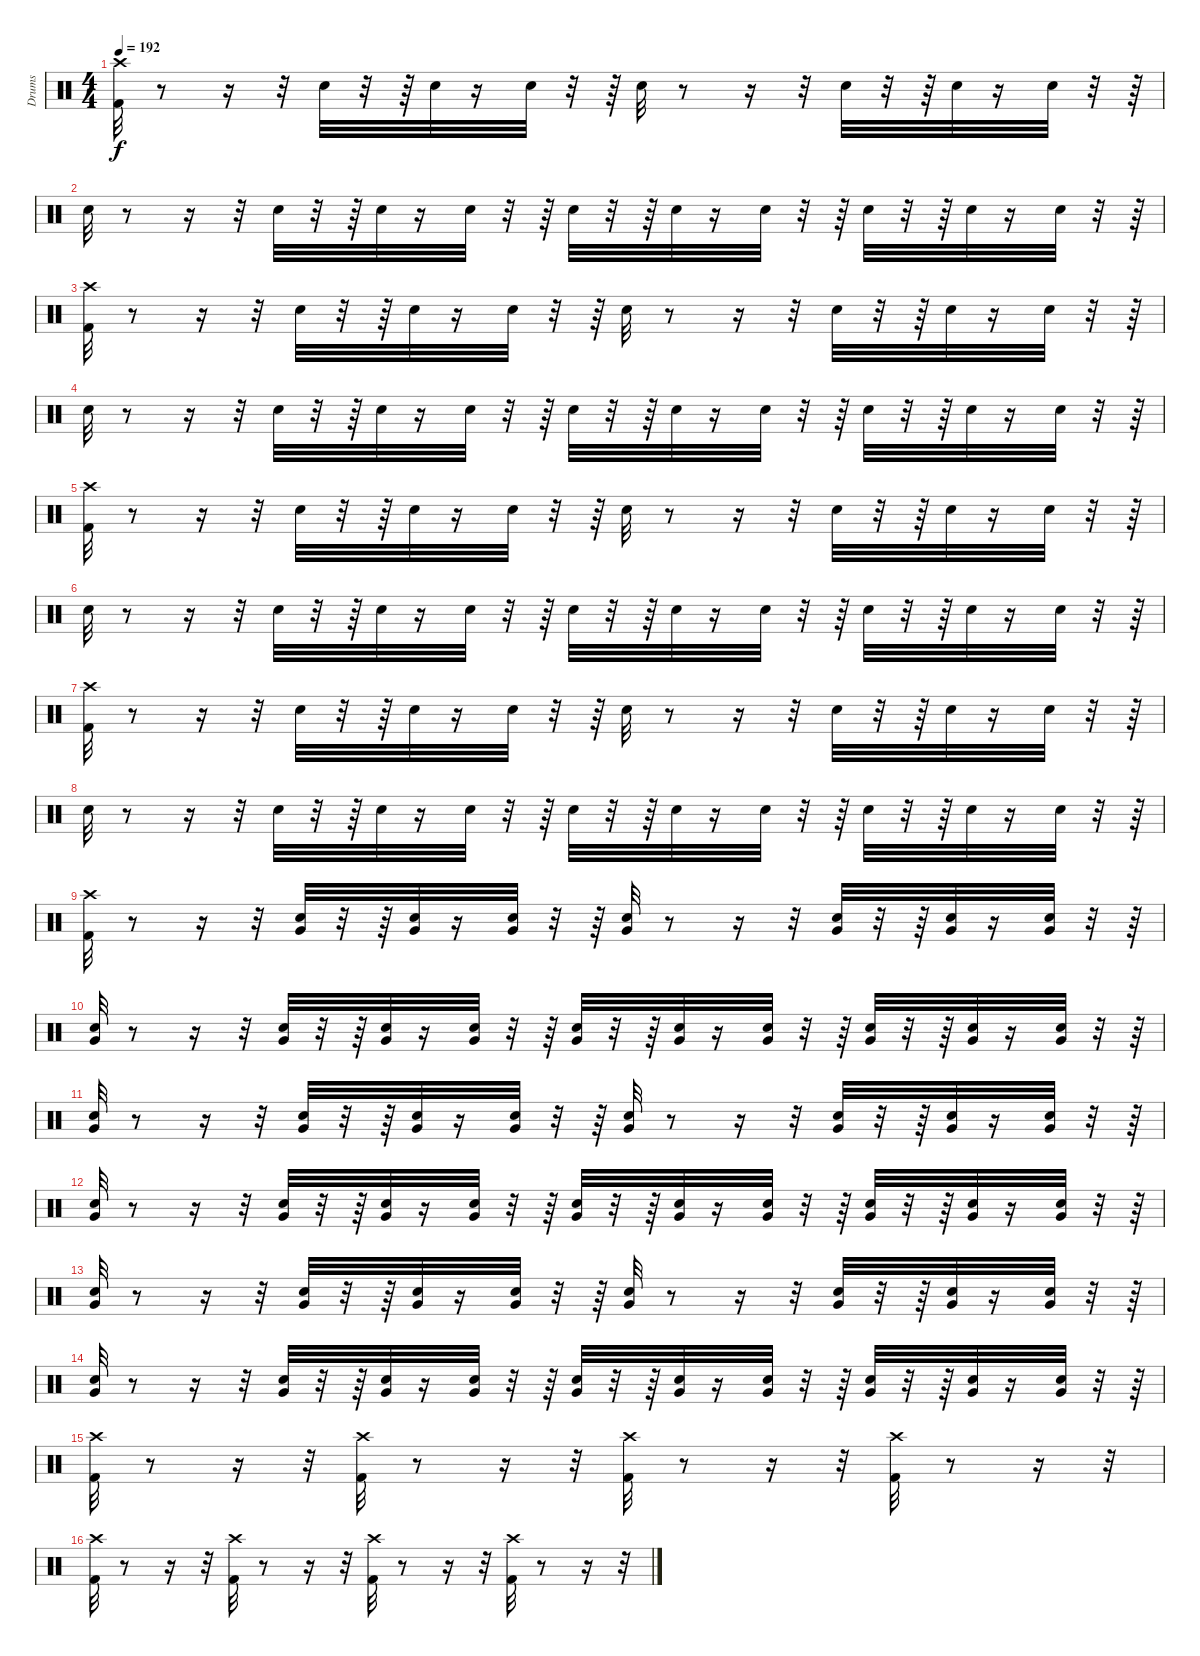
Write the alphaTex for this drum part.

\track ("Drums" "Drums") {instrument percussion}
\staff {score}
\articulation defaults
\ts (4 4)
\tempo 192
\clef neutral
\ks c
("Kick (hit) 2" "Crash high (hit)").32{dy f} r.8 r.16 r.32 "Snare (hit) 2".32 r.32 r.64 "Snare (hit) 2".32 r.16 "Snare (hit) 2".32 r.32 r.64 "Snare (hit) 2".32 r.8 r.16 r.32 "Snare (hit) 2".32 r.32 r.64 "Snare (hit) 2".32 r.16 "Snare (hit) 2".32 r.32 r.64 |
"Snare (hit) 2".32 r.8 r.16 r.32 "Snare (hit) 2".32 r.32 r.64 "Snare (hit) 2".32 r.16 "Snare (hit) 2".32 r.32 r.64 "Snare (hit) 2".32 r.32 r.64 "Snare (hit) 2".32 r.16 "Snare (hit) 2".32 r.32 r.64 "Snare (hit) 2".32 r.32 r.64 "Snare (hit) 2".32 r.16 "Snare (hit) 2".32 r.32 r.64 |
("Kick (hit) 2" "Crash high (hit)").32 r.8 r.16 r.32 "Snare (hit) 2".32 r.32 r.64 "Snare (hit) 2".32 r.16 "Snare (hit) 2".32 r.32 r.64 "Snare (hit) 2".32 r.8 r.16 r.32 "Snare (hit) 2".32 r.32 r.64 "Snare (hit) 2".32 r.16 "Snare (hit) 2".32 r.32 r.64 |
"Snare (hit) 2".32 r.8 r.16 r.32 "Snare (hit) 2".32 r.32 r.64 "Snare (hit) 2".32 r.16 "Snare (hit) 2".32 r.32 r.64 "Snare (hit) 2".32 r.32 r.64 "Snare (hit) 2".32 r.16 "Snare (hit) 2".32 r.32 r.64 "Snare (hit) 2".32 r.32 r.64 "Snare (hit) 2".32 r.16 "Snare (hit) 2".32 r.32 r.64 |
("Kick (hit) 2" "Crash high (hit)").32 r.8 r.16 r.32 "Snare (hit) 2".32 r.32 r.64 "Snare (hit) 2".32 r.16 "Snare (hit) 2".32 r.32 r.64 "Snare (hit) 2".32 r.8 r.16 r.32 "Snare (hit) 2".32 r.32 r.64 "Snare (hit) 2".32 r.16 "Snare (hit) 2".32 r.32 r.64 |
"Snare (hit) 2".32 r.8 r.16 r.32 "Snare (hit) 2".32 r.32 r.64 "Snare (hit) 2".32 r.16 "Snare (hit) 2".32 r.32 r.64 "Snare (hit) 2".32 r.32 r.64 "Snare (hit) 2".32 r.16 "Snare (hit) 2".32 r.32 r.64 "Snare (hit) 2".32 r.32 r.64 "Snare (hit) 2".32 r.16 "Snare (hit) 2".32 r.32 r.64 |
("Kick (hit) 2" "Crash high (hit)").32 r.8 r.16 r.32 "Snare (hit) 2".32 r.32 r.64 "Snare (hit) 2".32 r.16 "Snare (hit) 2".32 r.32 r.64 "Snare (hit) 2".32 r.8 r.16 r.32 "Snare (hit) 2".32 r.32 r.64 "Snare (hit) 2".32 r.16 "Snare (hit) 2".32 r.32 r.64 |
"Snare (hit) 2".32 r.8 r.16 r.32 "Snare (hit) 2".32 r.32 r.64 "Snare (hit) 2".32 r.16 "Snare (hit) 2".32 r.32 r.64 "Snare (hit) 2".32 r.32 r.64 "Snare (hit) 2".32 r.16 "Snare (hit) 2".32 r.32 r.64 "Snare (hit) 2".32 r.32 r.64 "Snare (hit) 2".32 r.16 "Snare (hit) 2".32 r.32 r.64 |
("Kick (hit) 2" "Crash high (hit)").32 r.8 r.16 r.32 ("Snare (hit) 2" "Very Low Tom (hit)").32 r.32 r.64 ("Snare (hit) 2" "Very Low Tom (hit)").32 r.16 ("Snare (hit) 2" "Very Low Tom (hit)").32 r.32 r.64 ("Snare (hit) 2" "Very Low Tom (hit)").32 r.8 r.16 r.32 ("Snare (hit) 2" "Very Low Tom (hit)").32 r.32 r.64 ("Snare (hit) 2" "Very Low Tom (hit)").32 r.16 ("Snare (hit) 2" "Very Low Tom (hit)").32 r.32 r.64 |
("Very Low Tom (hit)" "Snare (hit) 2").32 r.8 r.16 r.32 ("Very Low Tom (hit)" "Snare (hit) 2").32 r.32 r.64 ("Very Low Tom (hit)" "Snare (hit) 2").32 r.16 ("Very Low Tom (hit)" "Snare (hit) 2").32 r.32 r.64 ("Very Low Tom (hit)" "Snare (hit) 2").32 r.32 r.64 ("Very Low Tom (hit)" "Snare (hit) 2").32 r.16 ("Very Low Tom (hit)" "Snare (hit) 2").32 r.32 r.64 ("Very Low Tom (hit)" "Snare (hit) 2").32 r.32 r.64 ("Very Low Tom (hit)" "Snare (hit) 2").32 r.16 ("Very Low Tom (hit)" "Snare (hit) 2").32 r.32 r.64 |
("Snare (hit) 2" "Very Low Tom (hit)").32 r.8 r.16 r.32 ("Snare (hit) 2" "Very Low Tom (hit)").32 r.32 r.64 ("Snare (hit) 2" "Very Low Tom (hit)").32 r.16 ("Snare (hit) 2" "Very Low Tom (hit)").32 r.32 r.64 ("Snare (hit) 2" "Very Low Tom (hit)").32 r.8 r.16 r.32 ("Snare (hit) 2" "Very Low Tom (hit)").32 r.32 r.64 ("Snare (hit) 2" "Very Low Tom (hit)").32 r.16 ("Snare (hit) 2" "Very Low Tom (hit)").32 r.32 r.64 |
("Very Low Tom (hit)" "Snare (hit) 2").32 r.8 r.16 r.32 ("Very Low Tom (hit)" "Snare (hit) 2").32 r.32 r.64 ("Very Low Tom (hit)" "Snare (hit) 2").32 r.16 ("Very Low Tom (hit)" "Snare (hit) 2").32 r.32 r.64 ("Very Low Tom (hit)" "Snare (hit) 2").32 r.32 r.64 ("Very Low Tom (hit)" "Snare (hit) 2").32 r.16 ("Very Low Tom (hit)" "Snare (hit) 2").32 r.32 r.64 ("Very Low Tom (hit)" "Snare (hit) 2").32 r.32 r.64 ("Very Low Tom (hit)" "Snare (hit) 2").32 r.16 ("Very Low Tom (hit)" "Snare (hit) 2").32 r.32 r.64 |
("Snare (hit) 2" "Very Low Tom (hit)").32 r.8 r.16 r.32 ("Snare (hit) 2" "Very Low Tom (hit)").32 r.32 r.64 ("Snare (hit) 2" "Very Low Tom (hit)").32 r.16 ("Snare (hit) 2" "Very Low Tom (hit)").32 r.32 r.64 ("Snare (hit) 2" "Very Low Tom (hit)").32 r.8 r.16 r.32 ("Snare (hit) 2" "Very Low Tom (hit)").32 r.32 r.64 ("Snare (hit) 2" "Very Low Tom (hit)").32 r.16 ("Snare (hit) 2" "Very Low Tom (hit)").32 r.32 r.64 |
("Very Low Tom (hit)" "Snare (hit) 2").32 r.8 r.16 r.32 ("Very Low Tom (hit)" "Snare (hit) 2").32 r.32 r.64 ("Very Low Tom (hit)" "Snare (hit) 2").32 r.16 ("Very Low Tom (hit)" "Snare (hit) 2").32 r.32 r.64 ("Very Low Tom (hit)" "Snare (hit) 2").32 r.32 r.64 ("Very Low Tom (hit)" "Snare (hit) 2").32 r.16 ("Very Low Tom (hit)" "Snare (hit) 2").32 r.32 r.64 ("Very Low Tom (hit)" "Snare (hit) 2").32 r.32 r.64 ("Very Low Tom (hit)" "Snare (hit) 2").32 r.16 ("Very Low Tom (hit)" "Snare (hit) 2").32 r.32 r.64 |
("Kick (hit) 2" "Crash high (hit)").32 r.8 r.16 r.32 ("Kick (hit) 2" "Crash high (hit)").32 r.8 r.16 r.32 ("Kick (hit) 2" "Crash high (hit)").32 r.8 r.16 r.32 ("Kick (hit) 2" "Crash high (hit)").32 r.8 r.16 r.32 |
("Crash high (hit)" "Kick (hit) 2").32 r.8 r.16 r.32 ("Crash high (hit)" "Kick (hit) 2").32 r.8 r.16 r.32 ("Crash high (hit)" "Kick (hit) 2").32 r.8 r.16 r.32 ("Crash high (hit)" "Kick (hit) 2").32 r.8 r.16 r.32
